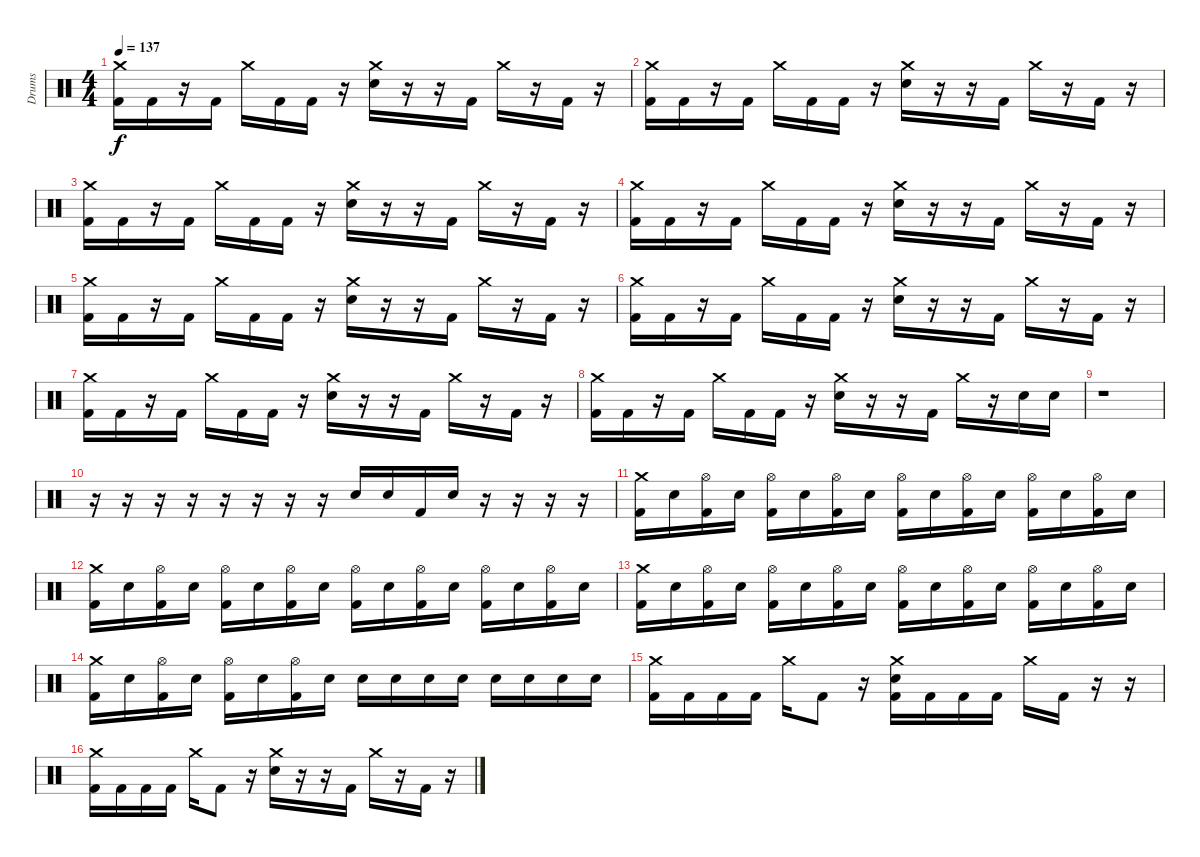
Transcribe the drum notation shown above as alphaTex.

\track ("Drums" "Drums") {instrument percussion}
\staff {score}
\articulation defaults
\ts (4 4)
\tempo 137
\clef neutral
\ks c
("Crash medium (hit)" "Kick (hit) 2").16{dy f} "Kick (hit) 2".16 r.16 "Kick (hit) 2".16 "Crash medium (hit)".16 "Kick (hit) 2".16 "Kick (hit) 2".16 r.16 ("Crash medium (hit)" "Electric Snare (hit)").16 r.16 r.16 "Kick (hit) 2".16 "Crash medium (hit)".16 r.16 "Kick (hit) 2".16 r.16 |
("Crash medium (hit)" "Kick (hit) 2").16 "Kick (hit) 2".16 r.16 "Kick (hit) 2".16 "Crash medium (hit)".16 "Kick (hit) 2".16 "Kick (hit) 2".16 r.16 ("Crash medium (hit)" "Electric Snare (hit)").16 r.16 r.16 "Kick (hit) 2".16 "Crash medium (hit)".16 r.16 "Kick (hit) 2".16 r.16 |
("Crash medium (hit)" "Kick (hit) 2").16 "Kick (hit) 2".16 r.16 "Kick (hit) 2".16 "Crash medium (hit)".16 "Kick (hit) 2".16 "Kick (hit) 2".16 r.16 ("Crash medium (hit)" "Electric Snare (hit)").16 r.16 r.16 "Kick (hit) 2".16 "Crash medium (hit)".16 r.16 "Kick (hit) 2".16 r.16 |
("Crash medium (hit)" "Kick (hit) 2").16 "Kick (hit) 2".16 r.16 "Kick (hit) 2".16 "Crash medium (hit)".16 "Kick (hit) 2".16 "Kick (hit) 2".16 r.16 ("Crash medium (hit)" "Electric Snare (hit)").16 r.16 r.16 "Kick (hit) 2".16 "Crash medium (hit)".16 r.16 "Kick (hit) 2".16 r.16 |
("Crash medium (hit)" "Kick (hit) 2").16 "Kick (hit) 2".16 r.16 "Kick (hit) 2".16 "Crash medium (hit)".16 "Kick (hit) 2".16 "Kick (hit) 2".16 r.16 ("Crash medium (hit)" "Electric Snare (hit)").16 r.16 r.16 "Kick (hit) 2".16 "Crash medium (hit)".16 r.16 "Kick (hit) 2".16 r.16 |
("Crash medium (hit)" "Kick (hit) 2").16 "Kick (hit) 2".16 r.16 "Kick (hit) 2".16 "Crash medium (hit)".16 "Kick (hit) 2".16 "Kick (hit) 2".16 r.16 ("Crash medium (hit)" "Electric Snare (hit)").16 r.16 r.16 "Kick (hit) 2".16 "Crash medium (hit)".16 r.16 "Kick (hit) 2".16 r.16 |
("Crash medium (hit)" "Kick (hit) 2").16 "Kick (hit) 2".16 r.16 "Kick (hit) 2".16 "Crash medium (hit)".16 "Kick (hit) 2".16 "Kick (hit) 2".16 r.16 ("Crash medium (hit)" "Electric Snare (hit)").16 r.16 r.16 "Kick (hit) 2".16 "Crash medium (hit)".16 r.16 "Kick (hit) 2".16 r.16 |
("Crash medium (hit)" "Kick (hit) 2").16 "Kick (hit) 2".16 r.16 "Kick (hit) 2".16 "Crash medium (hit)".16 "Kick (hit) 2".16 "Kick (hit) 2".16 r.16 ("Crash medium (hit)" "Electric Snare (hit)").16 r.16 r.16 "Kick (hit) 2".16 "Crash medium (hit)".16 r.16 "Electric Snare (hit)".16 "Electric Snare (hit)".16 |
r.1 |
r.16 r.16 r.16 r.16 r.16 r.16 r.16 r.16 "Electric Snare (hit)".16 "Electric Snare (hit)".16 "Kick (hit) 2".16 "Electric Snare (hit)".16 r.16 r.16 r.16 r.16 |
("Crash medium (hit)" "Kick (hit) 2").16 "Electric Snare (hit)".16 ("Hi-Hat (open)" "Kick (hit) 2").16 "Electric Snare (hit)".16 ("Hi-Hat (open)" "Kick (hit) 2").16 "Electric Snare (hit)".16 ("Hi-Hat (open)" "Kick (hit) 2").16 "Electric Snare (hit)".16 ("Hi-Hat (open)" "Kick (hit) 2").16 "Electric Snare (hit)".16 ("Hi-Hat (open)" "Kick (hit) 2").16 "Electric Snare (hit)".16 ("Hi-Hat (open)" "Kick (hit) 2").16 "Electric Snare (hit)".16 ("Hi-Hat (open)" "Kick (hit) 2").16 "Electric Snare (hit)".16 |
("Crash medium (hit)" "Kick (hit) 2").16 "Electric Snare (hit)".16 ("Hi-Hat (open)" "Kick (hit) 2").16 "Electric Snare (hit)".16 ("Hi-Hat (open)" "Kick (hit) 2").16 "Electric Snare (hit)".16 ("Hi-Hat (open)" "Kick (hit) 2").16 "Electric Snare (hit)".16 ("Hi-Hat (open)" "Kick (hit) 2").16 "Electric Snare (hit)".16 ("Hi-Hat (open)" "Kick (hit) 2").16 "Electric Snare (hit)".16 ("Hi-Hat (open)" "Kick (hit) 2").16 "Electric Snare (hit)".16 ("Hi-Hat (open)" "Kick (hit) 2").16 "Electric Snare (hit)".16 |
("Crash medium (hit)" "Kick (hit) 2").16 "Electric Snare (hit)".16 ("Hi-Hat (open)" "Kick (hit) 2").16 "Electric Snare (hit)".16 ("Hi-Hat (open)" "Kick (hit) 2").16 "Electric Snare (hit)".16 ("Hi-Hat (open)" "Kick (hit) 2").16 "Electric Snare (hit)".16 ("Hi-Hat (open)" "Kick (hit) 2").16 "Electric Snare (hit)".16 ("Hi-Hat (open)" "Kick (hit) 2").16 "Electric Snare (hit)".16 ("Hi-Hat (open)" "Kick (hit) 2").16 "Electric Snare (hit)".16 ("Hi-Hat (open)" "Kick (hit) 2").16 "Electric Snare (hit)".16 |
("Crash medium (hit)" "Kick (hit) 2").16 "Electric Snare (hit)".16 ("Hi-Hat (open)" "Kick (hit) 2").16 "Electric Snare (hit)".16 ("Hi-Hat (open)" "Kick (hit) 2").16 "Electric Snare (hit)".16 ("Hi-Hat (open)" "Kick (hit) 2").16 "Electric Snare (hit)".16 "Electric Snare (hit)".16 "Electric Snare (hit)".16 "Electric Snare (hit)".16 "Electric Snare (hit)".16 "Electric Snare (hit)".16 "Electric Snare (hit)".16 "Electric Snare (hit)".16 "Electric Snare (hit)".16 |
("Crash medium (hit)" "Kick (hit) 2").16 "Kick (hit) 2".16 "Kick (hit) 2".16 "Kick (hit) 2".16 "Crash medium (hit)".16 "Kick (hit) 2".8 r.16 ("Crash medium (hit)" "Electric Snare (hit)" "Kick (hit) 2").16 "Kick (hit) 2".16 "Kick (hit) 2".16 "Kick (hit) 2".16 "Crash medium (hit)".16 "Kick (hit) 2".16 r.16 r.16 |
("Crash medium (hit)" "Kick (hit) 2").16 "Kick (hit) 2".16 "Kick (hit) 2".16 "Kick (hit) 2".16 "Crash medium (hit)".16 "Kick (hit) 2".8 r.16 ("Crash medium (hit)" "Electric Snare (hit)").16 r.16 r.16 "Kick (hit) 2".16 "Crash medium (hit)".16 r.16 "Kick (hit) 2".16 r.16
